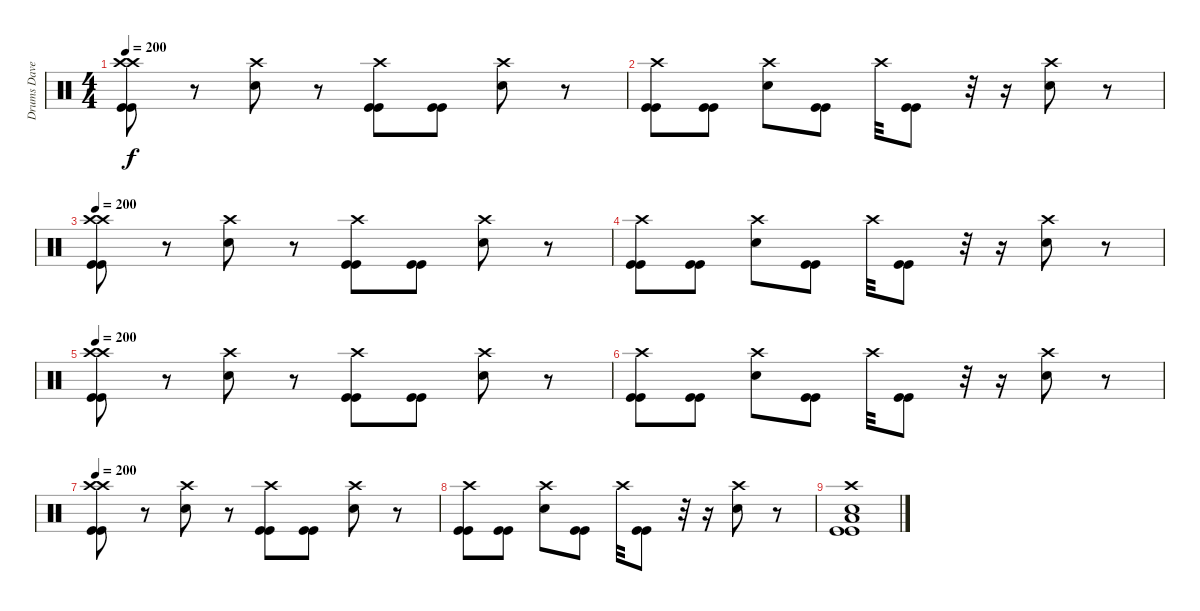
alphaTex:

\track ("Drums Dave Grohl" "Drums Dave") {instrument percussion}
\staff {score}
\articulation defaults
\ts (4 4)
\tempo 200
\clef neutral
\ks c
("Crash high (hit)" "Crash high (hit)" "Kick (hit)" "Kick (hit)").8{dy f} r.8 ("Crash high (hit)" "Electric Snare (hit)").8 r.8 ("Crash high (hit)" "Kick (hit)" "Kick (hit)").8 ("Kick (hit)" "Kick (hit)").8 ("Crash high (hit)" "Electric Snare (hit)").8 r.8 |
("Crash high (hit)" "Kick (hit)" "Kick (hit)").8 ("Kick (hit)" "Kick (hit)").8 ("Crash high (hit)" "Electric Snare (hit)").8 ("Kick (hit)" "Kick (hit)").8 "Crash high (hit)".32 ("Kick (hit)" "Kick (hit)").8 r.32 r.16 ("Crash high (hit)" "Electric Snare (hit)").8 r.8 |
\tempo 200
("Crash high (hit)" "Crash high (hit)" "Kick (hit)" "Kick (hit)").8 r.8 ("Crash high (hit)" "Electric Snare (hit)").8 r.8 ("Crash high (hit)" "Kick (hit)" "Kick (hit)").8 ("Kick (hit)" "Kick (hit)").8 ("Crash high (hit)" "Electric Snare (hit)").8 r.8 |
("Crash high (hit)" "Kick (hit)" "Kick (hit)").8 ("Kick (hit)" "Kick (hit)").8 ("Crash high (hit)" "Electric Snare (hit)").8 ("Kick (hit)" "Kick (hit)").8 "Crash high (hit)".32 ("Kick (hit)" "Kick (hit)").8 r.32 r.16 ("Crash high (hit)" "Electric Snare (hit)").8 r.8 |
\tempo 200
("Crash high (hit)" "Crash high (hit)" "Kick (hit)" "Kick (hit)").8 r.8 ("Crash high (hit)" "Electric Snare (hit)").8 r.8 ("Crash high (hit)" "Kick (hit)" "Kick (hit)").8 ("Kick (hit)" "Kick (hit)").8 ("Crash high (hit)" "Electric Snare (hit)").8 r.8 |
("Crash high (hit)" "Kick (hit)" "Kick (hit)").8 ("Kick (hit)" "Kick (hit)").8 ("Crash high (hit)" "Electric Snare (hit)").8 ("Kick (hit)" "Kick (hit)").8 "Crash high (hit)".32 ("Kick (hit)" "Kick (hit)").8 r.32 r.16 ("Crash high (hit)" "Electric Snare (hit)").8 r.8 |
\tempo 200
("Crash high (hit)" "Crash high (hit)" "Kick (hit)" "Kick (hit)").8 r.8 ("Crash high (hit)" "Electric Snare (hit)").8 r.8 ("Crash high (hit)" "Kick (hit)" "Kick (hit)").8 ("Kick (hit)" "Kick (hit)").8 ("Crash high (hit)" "Electric Snare (hit)").8 r.8 |
("Crash high (hit)" "Kick (hit)" "Kick (hit)").8 ("Kick (hit)" "Kick (hit)").8 ("Crash high (hit)" "Electric Snare (hit)").8 ("Kick (hit)" "Kick (hit)").8 "Crash high (hit)".32 ("Kick (hit)" "Kick (hit)").8 r.32 r.16 ("Crash high (hit)" "Electric Snare (hit)").8 r.8 |
("Crash high (hit)" "Low Tom (hit)" "Electric Snare (hit)" "Kick (hit)" "Kick (hit)").1
